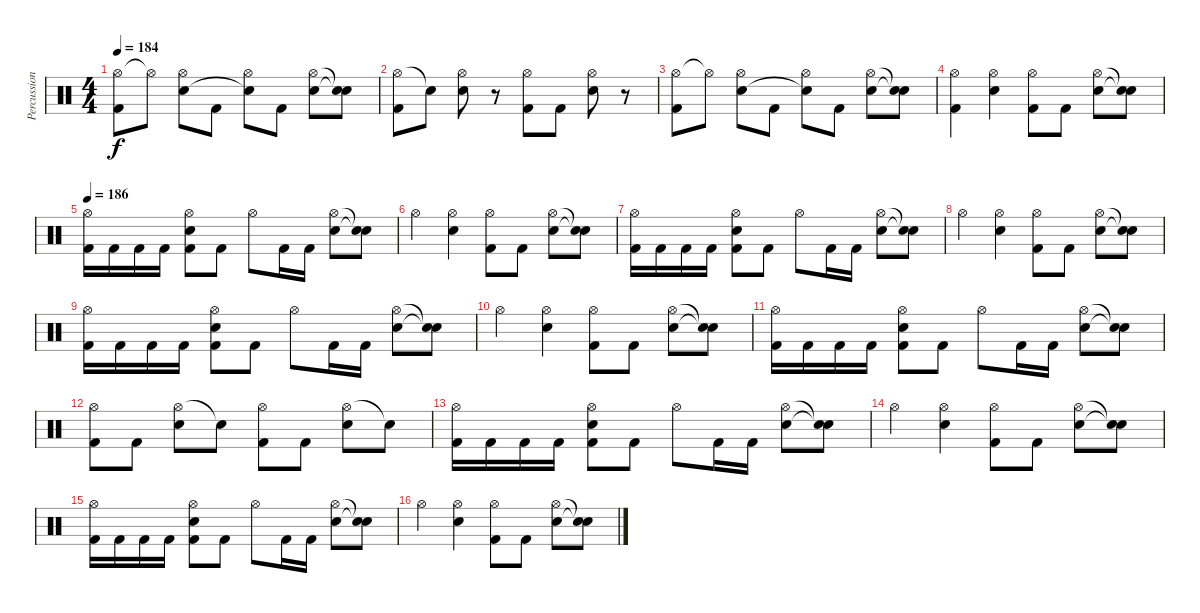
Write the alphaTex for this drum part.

\track ("Percussion" "Percussion") {instrument percussion}
\staff {score}
\articulation defaults
\ts (4 4)
\tempo 184
\clef neutral
\ks c
("Hi-Hat (open)" "Kick (hit) 2").8{dy f} "Hi-Hat (open)"{t}.8 ("Hi-Hat (open)" "Electric Snare (hit)").8 "Kick (hit) 2".8 ("Hi-Hat (open)" "Snare (hit)"{t}).8 "Kick (hit) 2".8 ("Hi-Hat (open)" "Electric Snare (hit)").8 ("Snare (hit)"{t} "Snare (hit)"{t}).8 |
("Hi-Hat (open)" "Kick (hit) 2").8 "Snare (hit)"{t}.8 ("Hi-Hat (open)" "Electric Snare (hit)").8 r.8 ("Hi-Hat (open)" "Kick (hit) 2").8 "Kick (hit) 2".8 ("Hi-Hat (open)" "Electric Snare (hit)").8 r.8 |
("Hi-Hat (open)" "Kick (hit) 2").8 "Hi-Hat (open)"{t}.8 ("Hi-Hat (open)" "Electric Snare (hit)").8 "Kick (hit) 2".8 ("Hi-Hat (open)" "Snare (hit)"{t}).8 "Kick (hit) 2".8 ("Hi-Hat (open)" "Electric Snare (hit)").8 ("Snare (hit)"{t} "Snare (hit)"{t}).8 |
("Hi-Hat (open)" "Kick (hit) 2").4 ("Hi-Hat (open)" "Electric Snare (hit)").4 ("Hi-Hat (open)" "Kick (hit) 2").8 "Kick (hit) 2".8 ("Hi-Hat (open)" "Electric Snare (hit)").8 ("Snare (hit)"{t} "Snare (hit)"{t}).8 |
\tempo 186
("Hi-Hat (open)" "Kick (hit) 2").16 "Kick (hit) 2".16 "Kick (hit) 2".16 "Kick (hit) 2".16 ("Hi-Hat (open)" "Electric Snare (hit)" "Kick (hit) 2").8 "Kick (hit) 2".8 "Hi-Hat (open)".8 "Kick (hit) 2".16 "Kick (hit) 2".16 ("Hi-Hat (open)" "Electric Snare (hit)").8 ("Snare (hit)"{t} "Snare (hit)"{t}).8 |
"Hi-Hat (open)".4 ("Hi-Hat (open)" "Electric Snare (hit)").4 ("Hi-Hat (open)" "Kick (hit) 2").8 "Kick (hit) 2".8 ("Hi-Hat (open)" "Electric Snare (hit)").8 ("Snare (hit)"{t} "Snare (hit)"{t}).8 |
("Hi-Hat (open)" "Kick (hit) 2").16 "Kick (hit) 2".16 "Kick (hit) 2".16 "Kick (hit) 2".16 ("Hi-Hat (open)" "Electric Snare (hit)" "Kick (hit) 2").8 "Kick (hit) 2".8 "Hi-Hat (open)".8 "Kick (hit) 2".16 "Kick (hit) 2".16 ("Hi-Hat (open)" "Electric Snare (hit)").8 ("Snare (hit)"{t} "Snare (hit)"{t}).8 |
"Hi-Hat (open)".4 ("Hi-Hat (open)" "Electric Snare (hit)").4 ("Hi-Hat (open)" "Kick (hit) 2").8 "Kick (hit) 2".8 ("Hi-Hat (open)" "Electric Snare (hit)").8 ("Snare (hit)"{t} "Snare (hit)"{t}).8 |
("Hi-Hat (open)" "Kick (hit) 2").16 "Kick (hit) 2".16 "Kick (hit) 2".16 "Kick (hit) 2".16 ("Hi-Hat (open)" "Electric Snare (hit)" "Kick (hit) 2").8 "Kick (hit) 2".8 "Hi-Hat (open)".8 "Kick (hit) 2".16 "Kick (hit) 2".16 ("Hi-Hat (open)" "Electric Snare (hit)").8 ("Snare (hit)"{t} "Snare (hit)"{t}).8 |
"Hi-Hat (open)".4 ("Hi-Hat (open)" "Electric Snare (hit)").4 ("Hi-Hat (open)" "Kick (hit) 2").8 "Kick (hit) 2".8 ("Hi-Hat (open)" "Electric Snare (hit)").8 ("Snare (hit)"{t} "Snare (hit)"{t}).8 |
("Hi-Hat (open)" "Kick (hit) 2").16 "Kick (hit) 2".16 "Kick (hit) 2".16 "Kick (hit) 2".16 ("Hi-Hat (open)" "Electric Snare (hit)" "Kick (hit) 2").8 "Kick (hit) 2".8 "Hi-Hat (open)".8 "Kick (hit) 2".16 "Kick (hit) 2".16 ("Hi-Hat (open)" "Electric Snare (hit)").8 ("Snare (hit)"{t} "Snare (hit)"{t}).8 |
("Hi-Hat (open)" "Kick (hit) 2").8 "Kick (hit) 2".8 ("Hi-Hat (open)" "Electric Snare (hit)").8 "Snare (hit)"{t}.8 ("Hi-Hat (open)" "Kick (hit) 2").8 "Kick (hit) 2".8 ("Hi-Hat (open)" "Electric Snare (hit)").8 "Snare (hit)"{t}.8 |
("Hi-Hat (open)" "Kick (hit) 2").16 "Kick (hit) 2".16 "Kick (hit) 2".16 "Kick (hit) 2".16 ("Hi-Hat (open)" "Electric Snare (hit)" "Kick (hit) 2").8 "Kick (hit) 2".8 "Hi-Hat (open)".8 "Kick (hit) 2".16 "Kick (hit) 2".16 ("Hi-Hat (open)" "Electric Snare (hit)").8 ("Snare (hit)"{t} "Snare (hit)"{t}).8 |
"Hi-Hat (open)".4 ("Hi-Hat (open)" "Electric Snare (hit)").4 ("Hi-Hat (open)" "Kick (hit) 2").8 "Kick (hit) 2".8 ("Hi-Hat (open)" "Electric Snare (hit)").8 ("Snare (hit)"{t} "Snare (hit)"{t}).8 |
("Hi-Hat (open)" "Kick (hit) 2").16 "Kick (hit) 2".16 "Kick (hit) 2".16 "Kick (hit) 2".16 ("Hi-Hat (open)" "Electric Snare (hit)" "Kick (hit) 2").8 "Kick (hit) 2".8 "Hi-Hat (open)".8 "Kick (hit) 2".16 "Kick (hit) 2".16 ("Hi-Hat (open)" "Electric Snare (hit)").8 ("Snare (hit)"{t} "Snare (hit)"{t}).8 |
"Hi-Hat (open)".4 ("Hi-Hat (open)" "Electric Snare (hit)").4 ("Hi-Hat (open)" "Kick (hit) 2").8 "Kick (hit) 2".8 ("Hi-Hat (open)" "Electric Snare (hit)").8 ("Snare (hit)"{t} "Snare (hit)"{t}).8
